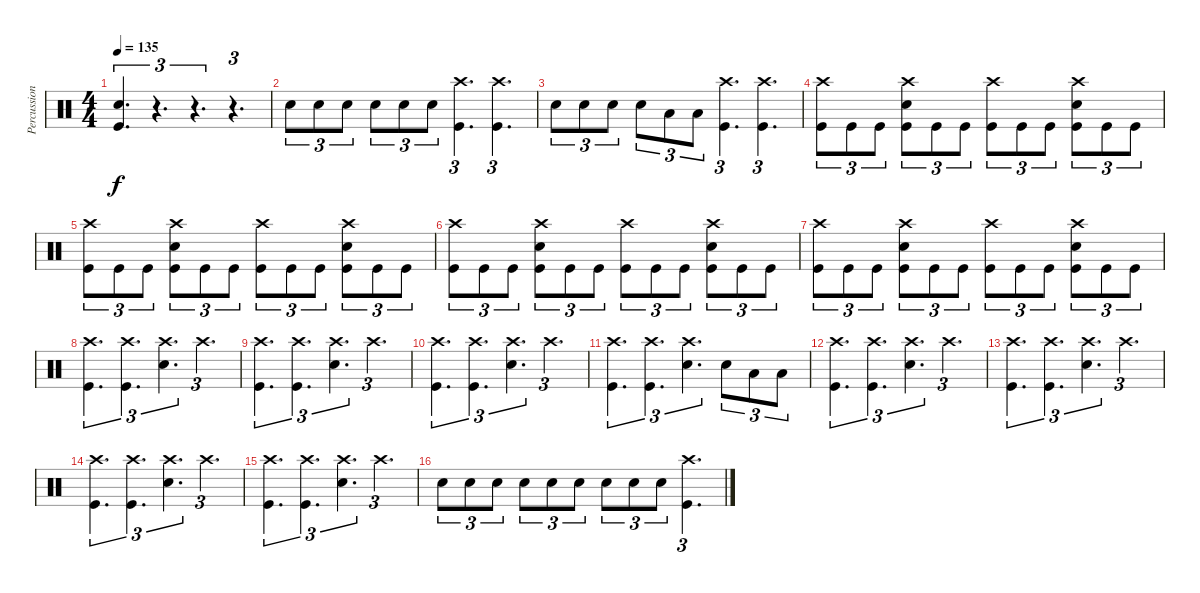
\track ("Percussion" "Percussion") {instrument percussion}
\staff {score}
\articulation defaults
\ts (4 4)
\tempo 135
\clef neutral
\ks c
("Snare (hit) 2" "Kick (hit)").4{d tu (3 2) dy f} r.4{d tu (3 2)} r.4{d tu (3 2)} r.4{d tu (3 2)} |
"Snare (hit) 2".8{tu (3 2)} "Snare (hit) 2".8{tu (3 2)} "Snare (hit) 2".8{tu (3 2)} "Snare (hit) 2".8{tu (3 2)} "Snare (hit) 2".8{tu (3 2)} "Snare (hit) 2".8{tu (3 2)} ("Crash high (hit)" "Kick (hit)").4{d tu (3 2)} ("Crash high (hit)" "Kick (hit)").4{d tu (3 2)} |
"Snare (hit) 2".8{tu (3 2)} "Snare (hit) 2".8{tu (3 2)} "Snare (hit) 2".8{tu (3 2)} "Snare (hit) 2".8{tu (3 2)} "Low Tom (hit)".8{tu (3 2)} "Low Tom (hit)".8{tu (3 2)} ("Crash high (hit)" "Kick (hit)").4{d tu (3 2)} ("Crash high (hit)" "Kick (hit)").4{d tu (3 2)} |
("Crash high (hit)" "Kick (hit)").8{tu (3 2)} "Kick (hit)".8{tu (3 2)} "Kick (hit)".8{tu (3 2)} ("Crash high (hit)" "Snare (hit) 2" "Kick (hit)").8{tu (3 2)} "Kick (hit)".8{tu (3 2)} "Kick (hit)".8{tu (3 2)} ("Crash high (hit)" "Kick (hit)").8{tu (3 2)} "Kick (hit)".8{tu (3 2)} "Kick (hit)".8{tu (3 2)} ("Crash high (hit)" "Snare (hit) 2" "Kick (hit)").8{tu (3 2)} "Kick (hit)".8{tu (3 2)} "Kick (hit)".8{tu (3 2)} |
("Crash high (hit)" "Kick (hit)").8{tu (3 2)} "Kick (hit)".8{tu (3 2)} "Kick (hit)".8{tu (3 2)} ("Crash high (hit)" "Snare (hit) 2" "Kick (hit)").8{tu (3 2)} "Kick (hit)".8{tu (3 2)} "Kick (hit)".8{tu (3 2)} ("Crash high (hit)" "Kick (hit)").8{tu (3 2)} "Kick (hit)".8{tu (3 2)} "Kick (hit)".8{tu (3 2)} ("Crash high (hit)" "Snare (hit) 2" "Kick (hit)").8{tu (3 2)} "Kick (hit)".8{tu (3 2)} "Kick (hit)".8{tu (3 2)} |
("Crash high (hit)" "Kick (hit)").8{tu (3 2)} "Kick (hit)".8{tu (3 2)} "Kick (hit)".8{tu (3 2)} ("Crash high (hit)" "Snare (hit) 2" "Kick (hit)").8{tu (3 2)} "Kick (hit)".8{tu (3 2)} "Kick (hit)".8{tu (3 2)} ("Crash high (hit)" "Kick (hit)").8{tu (3 2)} "Kick (hit)".8{tu (3 2)} "Kick (hit)".8{tu (3 2)} ("Crash high (hit)" "Snare (hit) 2" "Kick (hit)").8{tu (3 2)} "Kick (hit)".8{tu (3 2)} "Kick (hit)".8{tu (3 2)} |
("Crash high (hit)" "Kick (hit)").8{tu (3 2)} "Kick (hit)".8{tu (3 2)} "Kick (hit)".8{tu (3 2)} ("Crash high (hit)" "Snare (hit) 2" "Kick (hit)").8{tu (3 2)} "Kick (hit)".8{tu (3 2)} "Kick (hit)".8{tu (3 2)} ("Crash high (hit)" "Kick (hit)").8{tu (3 2)} "Kick (hit)".8{tu (3 2)} "Kick (hit)".8{tu (3 2)} ("Crash high (hit)" "Snare (hit) 2" "Kick (hit)").8{tu (3 2)} "Kick (hit)".8{tu (3 2)} "Kick (hit)".8{tu (3 2)} |
("Crash high (hit)" "Kick (hit)").4{d tu (3 2)} ("Crash high (hit)" "Kick (hit)").4{d tu (3 2)} ("Crash high (hit)" "Snare (hit) 2").4{d tu (3 2)} "Crash high (hit)".4{d tu (3 2)} |
("Crash high (hit)" "Kick (hit)").4{d tu (3 2)} ("Crash high (hit)" "Kick (hit)").4{d tu (3 2)} ("Crash high (hit)" "Snare (hit) 2").4{d tu (3 2)} "Crash high (hit)".4{d tu (3 2)} |
("Crash high (hit)" "Kick (hit)").4{d tu (3 2)} ("Crash high (hit)" "Kick (hit)").4{d tu (3 2)} ("Crash high (hit)" "Snare (hit) 2").4{d tu (3 2)} "Crash high (hit)".4{d tu (3 2)} |
("Crash high (hit)" "Kick (hit)").4{d tu (3 2)} ("Crash high (hit)" "Kick (hit)").4{d tu (3 2)} ("Crash high (hit)" "Snare (hit) 2").4{d tu (3 2)} "Snare (hit) 2".8{tu (3 2)} "Low Tom (hit)".8{tu (3 2)} "Low Tom (hit)".8{tu (3 2)} |
("Crash high (hit)" "Kick (hit)").4{d tu (3 2)} ("Crash high (hit)" "Kick (hit)").4{d tu (3 2)} ("Crash high (hit)" "Snare (hit) 2").4{d tu (3 2)} "Crash high (hit)".4{d tu (3 2)} |
("Crash high (hit)" "Kick (hit)").4{d tu (3 2)} ("Crash high (hit)" "Kick (hit)").4{d tu (3 2)} ("Crash high (hit)" "Snare (hit) 2").4{d tu (3 2)} "Crash high (hit)".4{d tu (3 2)} |
("Crash high (hit)" "Kick (hit)").4{d tu (3 2)} ("Crash high (hit)" "Kick (hit)").4{d tu (3 2)} ("Crash high (hit)" "Snare (hit) 2").4{d tu (3 2)} "Crash high (hit)".4{d tu (3 2)} |
("Crash high (hit)" "Kick (hit)").4{d tu (3 2)} ("Crash high (hit)" "Kick (hit)").4{d tu (3 2)} ("Crash high (hit)" "Snare (hit) 2").4{d tu (3 2)} "Crash high (hit)".4{d tu (3 2)} |
"Snare (hit) 2".8{tu (3 2)} "Snare (hit) 2".8{tu (3 2)} "Snare (hit) 2".8{tu (3 2)} "Snare (hit) 2".8{tu (3 2)} "Snare (hit) 2".8{tu (3 2)} "Snare (hit) 2".8{tu (3 2)} "Snare (hit) 2".8{tu (3 2)} "Snare (hit) 2".8{tu (3 2)} "Snare (hit) 2".8{tu (3 2)} ("Crash high (hit)" "Kick (hit)").4{d tu (3 2)}
